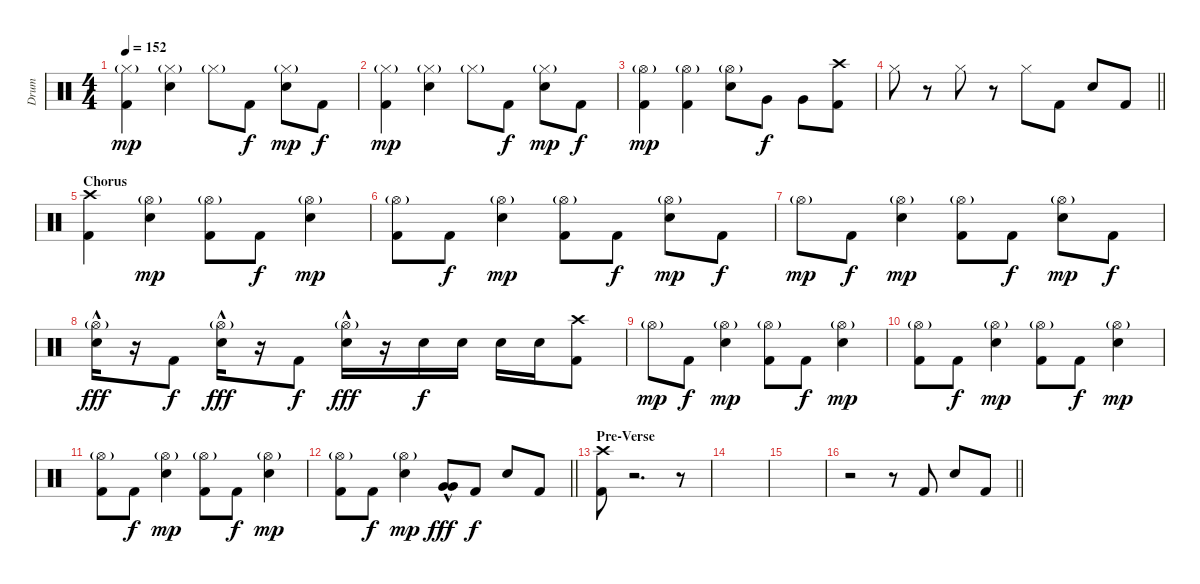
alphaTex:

\track ("Drum" "Drum") {instrument percussion}
\staff {score}
\articulation defaults
\ts (4 4)
\tempo 152
\clef neutral
\ks c
("Hi-Hat (closed)"{g} "Kick (hit) 2").4{dy mp} ("Hi-Hat (closed)"{g} "Electric Snare (hit)").4 "Hi-Hat (closed)"{g}.8 "Kick (hit) 2".8{dy f} ("Hi-Hat (closed)"{g} "Electric Snare (hit)").8{dy mp} "Kick (hit) 2".8{dy f} |
("Hi-Hat (closed)"{g} "Kick (hit) 2").4{dy mp} ("Hi-Hat (closed)"{g} "Electric Snare (hit)").4 "Hi-Hat (closed)"{g}.8 "Kick (hit) 2".8{dy f} ("Hi-Hat (closed)"{g} "Electric Snare (hit)").8{dy mp} "Kick (hit) 2".8{dy f} |
("Hi-Hat (open)"{g} "Kick (hit) 2").4{dy mp} ("Hi-Hat (open)"{g} "Kick (hit) 2").4 ("Hi-Hat (open)"{g} "Electric Snare (hit)").8 "Very Low Tom (hit)".8{dy f} "Very Low Tom (hit)".8 ("Crash high (hit)" "Kick (hit) 2").8 |
\barLineRight lightlight "Hi-Hat (closed)".8
r.8 "Hi-Hat (closed)".8 r.8 "Hi-Hat (closed)".8 "Kick (hit) 2".8 "Electric Snare (hit)".8 "Kick (hit) 2".8 |
\section ("" "Chorus")
("Crash high (hit)" "Kick (hit) 2").4 ("Hi-Hat (open)"{g} "Electric Snare (hit)").4{dy mp} ("Hi-Hat (open)"{g} "Kick (hit) 2").8 "Kick (hit) 2".8{dy f} ("Hi-Hat (open)"{g} "Electric Snare (hit)").4{dy mp} |
("Hi-Hat (open)"{g} "Kick (hit) 2").8 "Kick (hit) 2".8{dy f} ("Hi-Hat (open)"{g} "Electric Snare (hit)").4{dy mp} ("Hi-Hat (open)"{g} "Kick (hit) 2").8 "Kick (hit) 2".8{dy f} ("Hi-Hat (open)"{g} "Electric Snare (hit)").8{dy mp} "Kick (hit) 2".8{dy f} |
"Hi-Hat (open)"{g}.8{dy mp} "Kick (hit) 2".8{dy f} ("Hi-Hat (open)"{g} "Electric Snare (hit)").4{dy mp} ("Hi-Hat (open)"{g} "Kick (hit) 2").8 "Kick (hit) 2".8{dy f} ("Hi-Hat (open)"{g} "Electric Snare (hit)").8{dy mp} "Kick (hit) 2".8{dy f} |
("Hi-Hat (open)"{g} "Electric Snare (hit)"{hac}).16{dy fff} r.16{volume 0} "Kick (hit) 2".8{dy f volume 16} ("Hi-Hat (open)"{g} "Electric Snare (hit)"{hac}).16{dy fff} r.16{volume 0} "Kick (hit) 2".8{dy f volume 16} ("Hi-Hat (open)"{g} "Electric Snare (hit)"{hac}).16{dy fff} r.16{volume 0} "Electric Snare (hit)".16{dy f volume 16} "Electric Snare (hit)".16 "Electric Snare (hit)".16 "Electric Snare (hit)".16 ("Crash high (hit)" "Kick (hit) 2").8 |
"Hi-Hat (open)"{g}.8{dy mp} "Kick (hit) 2".8{dy f} ("Hi-Hat (open)"{g} "Electric Snare (hit)").4{dy mp} ("Hi-Hat (open)"{g} "Kick (hit) 2").8 "Kick (hit) 2".8{dy f} ("Hi-Hat (open)"{g} "Electric Snare (hit)").4{dy mp} |
("Hi-Hat (open)"{g} "Kick (hit) 2").8 "Kick (hit) 2".8{dy f} ("Hi-Hat (open)"{g} "Electric Snare (hit)").4{dy mp} ("Hi-Hat (open)"{g} "Kick (hit) 2").8 "Kick (hit) 2".8{dy f} ("Hi-Hat (open)"{g} "Electric Snare (hit)").4{dy mp} |
("Hi-Hat (open)"{g} "Kick (hit) 2").8 "Kick (hit) 2".8{dy f} ("Hi-Hat (open)"{g} "Electric Snare (hit)").4{dy mp} ("Hi-Hat (open)"{g} "Kick (hit) 2").8 "Kick (hit) 2".8{dy f} ("Hi-Hat (open)"{g} "Electric Snare (hit)").4{dy mp} |
\barLineRight lightlight
("Hi-Hat (open)"{g} "Kick (hit) 2").8 "Kick (hit) 2".8{dy f} ("Hi-Hat (open)"{g} "Electric Snare (hit)").4{dy mp} ("Very Low Tom (hit)"{hac} "Very Low Tom (hit)"{hac}).8{dy fff} "Kick (hit) 2".8{dy f} "Electric Snare (hit)".8 "Kick (hit) 2".8 |
\section ("" "Pre-Verse")
("Crash high (hit)" "Kick (hit) 2").8 r.2{d} r.8 |
|
|
\barLineRight lightlight
r.2 r.8 "Kick (hit) 2".8 "Electric Snare (hit)".8 "Kick (hit) 2".8
